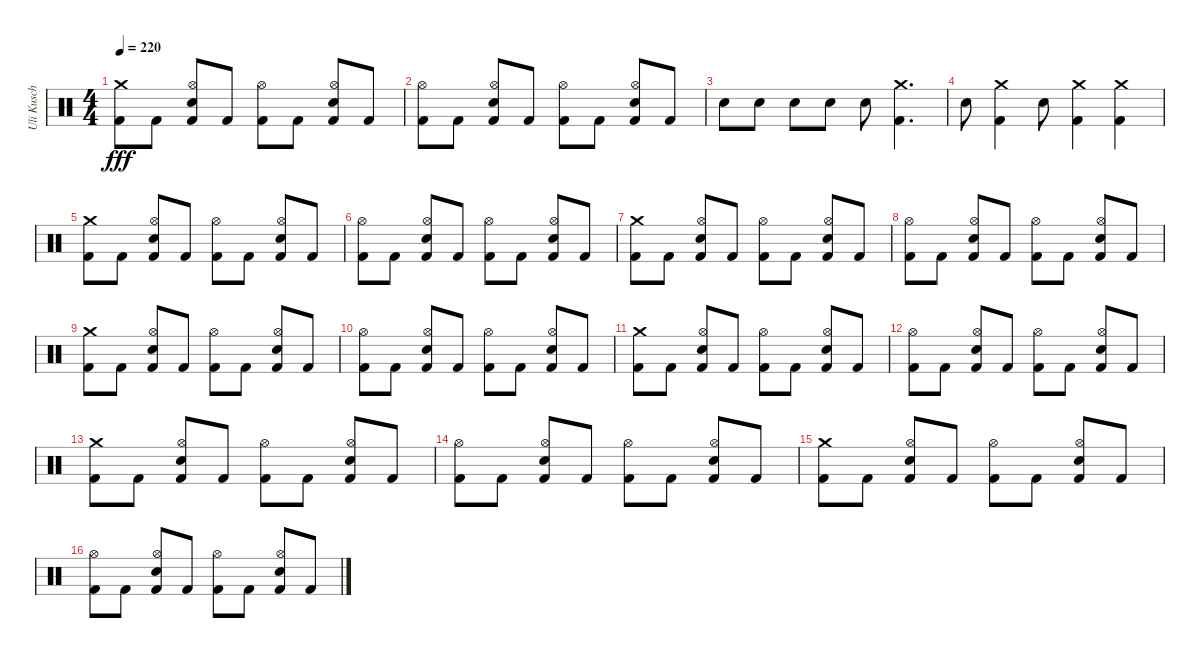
\track ("Uli Kusch" "Uli Kusch") {instrument percussion}
\staff {score}
\articulation defaults
\ts (4 4)
\tempo 220
\clef neutral
\ks c
("Crash medium (hit)" "Kick (hit) 2").8{dy fff} "Kick (hit) 2".8 ("Hi-Hat (open)" "Snare (hit) 2" "Kick (hit) 2").8 "Kick (hit) 2".8 ("Hi-Hat (open)" "Kick (hit) 2").8 "Kick (hit) 2".8 ("Hi-Hat (open)" "Snare (hit) 2" "Kick (hit) 2").8 "Kick (hit) 2".8 |
("Hi-Hat (open)" "Kick (hit) 2").8 "Kick (hit) 2".8 ("Hi-Hat (open)" "Snare (hit) 2" "Kick (hit) 2").8 "Kick (hit) 2".8 ("Hi-Hat (open)" "Kick (hit) 2").8 "Kick (hit) 2".8 ("Hi-Hat (open)" "Snare (hit) 2" "Kick (hit) 2").8 "Kick (hit) 2".8 |
"Snare (hit) 2".8 "Snare (hit) 2".8 "Snare (hit) 2".8 "Snare (hit) 2".8 "Snare (hit) 2".8 ("Crash medium (hit)" "Kick (hit) 2").4{d} |
"Snare (hit) 2".8 ("Crash medium (hit)" "Kick (hit) 2").4 "Snare (hit) 2".8 ("Crash medium (hit)" "Kick (hit) 2").4 ("Crash medium (hit)" "Kick (hit) 2").4 |
("Crash medium (hit)" "Kick (hit) 2").8 "Kick (hit) 2".8 ("Hi-Hat (open)" "Snare (hit) 2" "Kick (hit) 2").8 "Kick (hit) 2".8 ("Hi-Hat (open)" "Kick (hit) 2").8 "Kick (hit) 2".8 ("Hi-Hat (open)" "Snare (hit) 2" "Kick (hit) 2").8 "Kick (hit) 2".8 |
("Hi-Hat (open)" "Kick (hit) 2").8 "Kick (hit) 2".8 ("Hi-Hat (open)" "Snare (hit) 2" "Kick (hit) 2").8 "Kick (hit) 2".8 ("Hi-Hat (open)" "Kick (hit) 2").8 "Kick (hit) 2".8 ("Hi-Hat (open)" "Snare (hit) 2" "Kick (hit) 2").8 "Kick (hit) 2".8 |
("Crash medium (hit)" "Kick (hit) 2").8 "Kick (hit) 2".8 ("Hi-Hat (open)" "Snare (hit) 2" "Kick (hit) 2").8 "Kick (hit) 2".8 ("Hi-Hat (open)" "Kick (hit) 2").8 "Kick (hit) 2".8 ("Hi-Hat (open)" "Snare (hit) 2" "Kick (hit) 2").8 "Kick (hit) 2".8 |
("Hi-Hat (open)" "Kick (hit) 2").8 "Kick (hit) 2".8 ("Hi-Hat (open)" "Snare (hit) 2" "Kick (hit) 2").8 "Kick (hit) 2".8 ("Hi-Hat (open)" "Kick (hit) 2").8 "Kick (hit) 2".8 ("Hi-Hat (open)" "Snare (hit) 2" "Kick (hit) 2").8 "Kick (hit) 2".8 |
("Crash medium (hit)" "Kick (hit) 2").8 "Kick (hit) 2".8 ("Hi-Hat (open)" "Snare (hit) 2" "Kick (hit) 2").8 "Kick (hit) 2".8 ("Hi-Hat (open)" "Kick (hit) 2").8 "Kick (hit) 2".8 ("Hi-Hat (open)" "Snare (hit) 2" "Kick (hit) 2").8 "Kick (hit) 2".8 |
("Hi-Hat (open)" "Kick (hit) 2").8 "Kick (hit) 2".8 ("Hi-Hat (open)" "Snare (hit) 2" "Kick (hit) 2").8 "Kick (hit) 2".8 ("Hi-Hat (open)" "Kick (hit) 2").8 "Kick (hit) 2".8 ("Hi-Hat (open)" "Snare (hit) 2" "Kick (hit) 2").8 "Kick (hit) 2".8 |
("Crash medium (hit)" "Kick (hit) 2").8 "Kick (hit) 2".8 ("Hi-Hat (open)" "Snare (hit) 2" "Kick (hit) 2").8 "Kick (hit) 2".8 ("Hi-Hat (open)" "Kick (hit) 2").8 "Kick (hit) 2".8 ("Hi-Hat (open)" "Snare (hit) 2" "Kick (hit) 2").8 "Kick (hit) 2".8 |
("Hi-Hat (open)" "Kick (hit) 2").8 "Kick (hit) 2".8 ("Hi-Hat (open)" "Snare (hit) 2" "Kick (hit) 2").8 "Kick (hit) 2".8 ("Hi-Hat (open)" "Kick (hit) 2").8 "Kick (hit) 2".8 ("Hi-Hat (open)" "Snare (hit) 2" "Kick (hit) 2").8 "Kick (hit) 2".8 |
("Crash medium (hit)" "Kick (hit) 2").8 "Kick (hit) 2".8 ("Hi-Hat (open)" "Snare (hit) 2" "Kick (hit) 2").8 "Kick (hit) 2".8 ("Hi-Hat (open)" "Kick (hit) 2").8 "Kick (hit) 2".8 ("Hi-Hat (open)" "Snare (hit) 2" "Kick (hit) 2").8 "Kick (hit) 2".8 |
("Hi-Hat (open)" "Kick (hit) 2").8 "Kick (hit) 2".8 ("Hi-Hat (open)" "Snare (hit) 2" "Kick (hit) 2").8 "Kick (hit) 2".8 ("Hi-Hat (open)" "Kick (hit) 2").8 "Kick (hit) 2".8 ("Hi-Hat (open)" "Snare (hit) 2" "Kick (hit) 2").8 "Kick (hit) 2".8 |
("Crash medium (hit)" "Kick (hit) 2").8 "Kick (hit) 2".8 ("Hi-Hat (open)" "Snare (hit) 2" "Kick (hit) 2").8 "Kick (hit) 2".8 ("Hi-Hat (open)" "Kick (hit) 2").8 "Kick (hit) 2".8 ("Hi-Hat (open)" "Snare (hit) 2" "Kick (hit) 2").8 "Kick (hit) 2".8 |
("Hi-Hat (open)" "Kick (hit) 2").8 "Kick (hit) 2".8 ("Hi-Hat (open)" "Snare (hit) 2" "Kick (hit) 2").8 "Kick (hit) 2".8 ("Hi-Hat (open)" "Kick (hit) 2").8 "Kick (hit) 2".8 ("Hi-Hat (open)" "Snare (hit) 2" "Kick (hit) 2").8 "Kick (hit) 2".8
